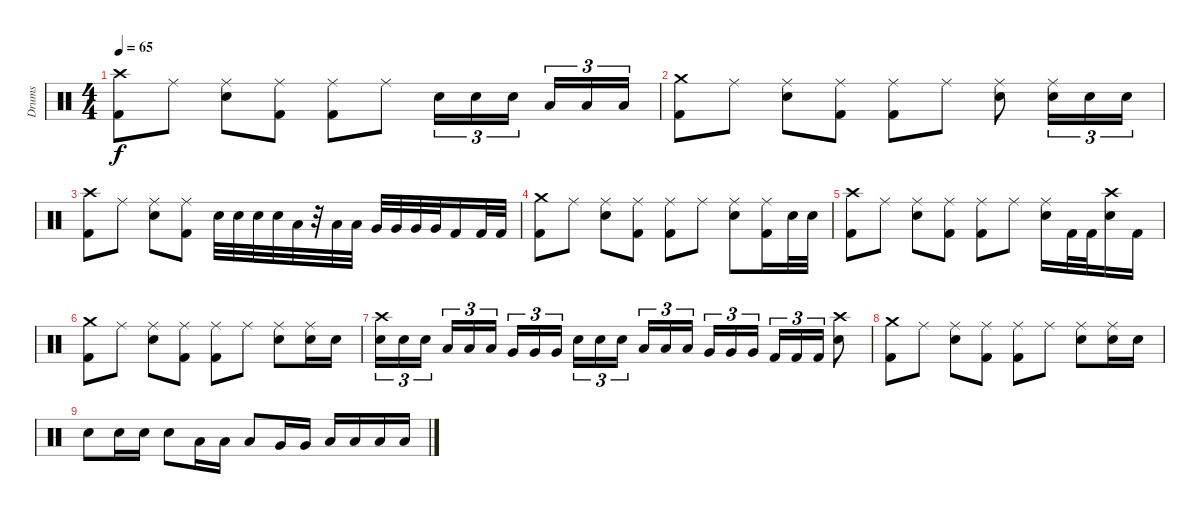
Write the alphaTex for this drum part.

\track ("Drums" "Drums") {instrument percussion}
\staff {score}
\articulation defaults
\ts (4 4)
\tempo 65
\clef neutral
\ks c
("Kick (hit) 2" "Crash high (hit)").8{dy f} "Ride (middle)".8 ("Snare (hit) 2" "Ride (middle)").8 ("Kick (hit) 2" "Ride (middle)").8 ("Kick (hit) 2" "Ride (middle)").8 "Ride (middle)".8 "Snare (hit) 2".16{tu (3 2)} "Snare (hit) 2".16{tu (3 2)} "Snare (hit) 2".16{tu (3 2)} "Low Tom (hit)".16{tu (3 2)} "Low Tom (hit)".16{tu (3 2)} "Low Tom (hit)".16{tu (3 2)} |
("Kick (hit) 2" "Crash medium (hit)").8{volume 6} "Ride (middle)".8 ("Snare (hit) 2" "Ride (middle)").8 ("Kick (hit) 2" "Ride (middle)").8 ("Kick (hit) 2" "Ride (middle)").8 "Ride (middle)".8 ("Snare (hit) 2" "Ride (middle)").8 ("Snare (hit) 2" "Ride (middle)").16{tu (3 2)} "Snare (hit) 2".16{tu (3 2)} "Snare (hit) 2".16{tu (3 2)} |
("Kick (hit) 2" "Crash high (hit)").8 "Ride (middle)".8 ("Snare (hit) 2" "Ride (middle)").8 ("Kick (hit) 2" "Ride (middle)").8 "Snare (hit) 2".32 "Snare (hit) 2".32 "Snare (hit) 2".32 "Snare (hit) 2".32 "Low Tom (hit)".32 r.32 "Low Tom (hit)".32 "Low Tom (hit)".32 "Very Low Tom (hit)".32 "Very Low Tom (hit)".32 "Very Low Tom (hit)".32 "Very Low Tom (hit)".32 "Kick (hit) 2".16 "Kick (hit) 2".32 "Kick (hit) 2".32 |
("Kick (hit) 2" "Crash medium (hit)").8 "Ride (middle)".8 ("Snare (hit) 2" "Ride (middle)").8 ("Kick (hit) 2" "Ride (middle)").8 ("Kick (hit) 2" "Ride (middle)").8 "Ride (middle)".8 ("Snare (hit) 2" "Ride (middle)").8 ("Kick (hit) 2" "Ride (middle)").16 "Snare (hit) 2".32 "Snare (hit) 2".32 |
("Kick (hit) 2" "Crash high (hit)").8 "Ride (middle)".8 ("Snare (hit) 2" "Ride (middle)").8 ("Kick (hit) 2" "Ride (middle)").8 ("Kick (hit) 2" "Ride (middle)").8 "Ride (middle)".8 ("Snare (hit) 2" "Ride (middle)").16 "Kick (hit) 2".32 "Kick (hit) 2".32 ("Snare (hit) 2" "Crash high (hit)").16 "Kick (hit) 2".16 |
("Kick (hit) 2" "Crash medium (hit)").8{volume 0} "Ride (middle)".8 ("Snare (hit) 2" "Ride (middle)").8 ("Kick (hit) 2" "Ride (middle)").8 ("Kick (hit) 2" "Ride (middle)").8 "Ride (middle)".8 ("Snare (hit) 2" "Ride (middle)").8 ("Snare (hit) 2" "Ride (middle)").16 "Snare (hit) 2".16 |
("Snare (hit) 2" "Crash high (hit)").16{tu (3 2)} "Snare (hit) 2".16{tu (3 2)} "Snare (hit) 2".16{tu (3 2)} "Low Tom (hit)".16{tu (3 2)} "Low Tom (hit)".16{tu (3 2)} "Low Tom (hit)".16{tu (3 2)} "Very Low Tom (hit)".16{tu (3 2)} "Very Low Tom (hit)".16{tu (3 2)} "Very Low Tom (hit)".16{tu (3 2)} "Snare (hit) 2".16{tu (3 2)} "Snare (hit) 2".16{tu (3 2)} "Snare (hit) 2".16{tu (3 2)} "Low Tom (hit)".16{tu (3 2)} "Low Tom (hit)".16{tu (3 2)} "Low Tom (hit)".16{tu (3 2)} "Very Low Tom (hit)".16{tu (3 2)} "Very Low Tom (hit)".16{tu (3 2)} "Very Low Tom (hit)".16{tu (3 2)} "Kick (hit) 2".16{tu (3 2)} "Kick (hit) 2".16{tu (3 2)} "Kick (hit) 2".16{tu (3 2)} ("Snare (hit) 2" "Crash high (hit)").8 |
("Kick (hit) 2" "Crash medium (hit)").8 "Ride (middle)".8 ("Snare (hit) 2" "Ride (middle)").8 ("Kick (hit) 2" "Ride (middle)").8 ("Kick (hit) 2" "Ride (middle)").8 "Ride (middle)".8 ("Snare (hit) 2" "Ride (middle)").8 ("Snare (hit) 2" "Ride (middle)").16 "Snare (hit) 2".16 |
"Snare (hit) 2".8 "Snare (hit) 2".16 "Snare (hit) 2".16 "Snare (hit) 2".8 "Low Tom (hit)".16 "Low Tom (hit)".16 "Low Tom (hit)".8 "Very Low Tom (hit)".16 "Very Low Tom (hit)".16 "Low Floor Tom (hit)".16 "Low Floor Tom (hit)".16 "Low Floor Tom (hit)".16 "Low Floor Tom (hit)".16
